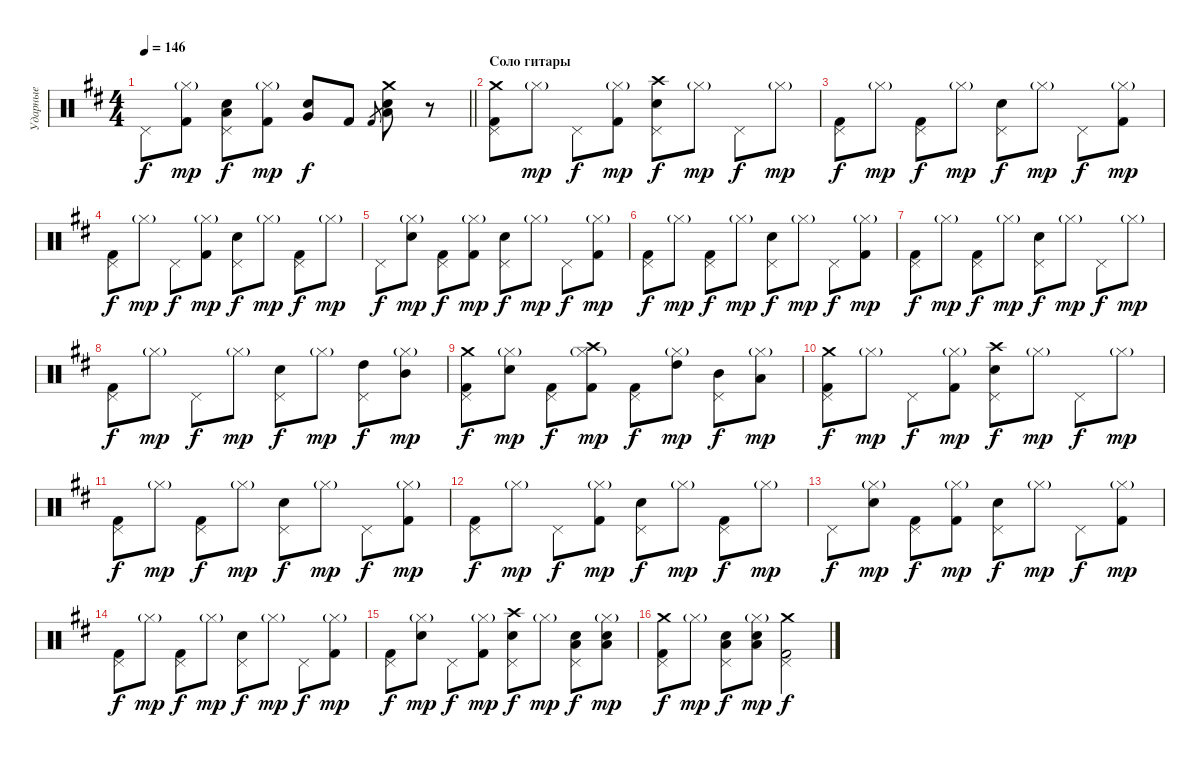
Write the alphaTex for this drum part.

\track ("Ударные" "Ударные") {instrument percussion}
\staff {score}
\articulation defaults
\ts (4 4)
\tempo 146
\clef neutral
\barLineRight lightlight
\ks bminor "Pedal Hi-Hat (hit)".8{dy f}
("Kick (hit) 2" "Hi-Hat (closed)"{g}).8{dy mp} ("Low Floor Tom (hit)" "Electric Snare (hit)" "Pedal Hi-Hat (hit)").8{dy f} ("Kick (hit) 2" "Hi-Hat (closed)"{g}).8{dy mp} ("Very Low Tom (hit)" "Electric Snare (hit)").8{dy f} "Kick (hit) 2".8 "Kick (hit) 2".8{gr} ("Low Tom (hit)" "Electric Snare (hit)" "Crash medium (hit)").8 r.8 |
\section ("" "Соло гитары")
("Crash medium (hit)" "Kick (hit) 2" "Pedal Hi-Hat (hit)").8 "Hi-Hat (closed)"{g}.8{dy mp} "Pedal Hi-Hat (hit)".8{dy f} ("Kick (hit) 2" "Hi-Hat (closed)"{g}).8{dy mp} ("Crash high (hit)" "Electric Snare (hit)" "Pedal Hi-Hat (hit)").8{dy f} "Hi-Hat (closed)"{g}.8{dy mp} "Pedal Hi-Hat (hit)".8{dy f} "Hi-Hat (closed)"{g}.8{dy mp} |
("Kick (hit) 2" "Pedal Hi-Hat (hit)").8{dy f} "Hi-Hat (closed)"{g}.8{dy mp} ("Kick (hit) 2" "Pedal Hi-Hat (hit)").8{dy f} "Hi-Hat (closed)"{g}.8{dy mp} ("Electric Snare (hit)" "Pedal Hi-Hat (hit)").8{dy f} "Hi-Hat (closed)"{g}.8{dy mp} "Pedal Hi-Hat (hit)".8{dy f} ("Kick (hit) 2" "Hi-Hat (closed)"{g}).8{dy mp} |
("Kick (hit) 2" "Pedal Hi-Hat (hit)").8{dy f} "Hi-Hat (closed)"{g}.8{dy mp} "Pedal Hi-Hat (hit)".8{dy f} ("Kick (hit) 2" "Hi-Hat (closed)"{g}).8{dy mp} ("Electric Snare (hit)" "Pedal Hi-Hat (hit)").8{dy f} "Hi-Hat (closed)"{g}.8{dy mp} ("Kick (hit) 2" "Pedal Hi-Hat (hit)").8{dy f} "Hi-Hat (closed)"{g}.8{dy mp} |
"Pedal Hi-Hat (hit)".8{dy f} ("Electric Snare (hit)" "Hi-Hat (closed)"{g}).8{dy mp} ("Kick (hit) 2" "Pedal Hi-Hat (hit)").8{dy f} ("Kick (hit) 2" "Hi-Hat (closed)"{g}).8{dy mp} ("Electric Snare (hit)" "Pedal Hi-Hat (hit)").8{dy f} "Hi-Hat (closed)"{g}.8{dy mp} "Pedal Hi-Hat (hit)".8{dy f} ("Kick (hit) 2" "Hi-Hat (closed)"{g}).8{dy mp} |
("Kick (hit) 2" "Pedal Hi-Hat (hit)").8{dy f} "Hi-Hat (closed)"{g}.8{dy mp} ("Kick (hit) 2" "Pedal Hi-Hat (hit)").8{dy f} "Hi-Hat (closed)"{g}.8{dy mp} ("Electric Snare (hit)" "Pedal Hi-Hat (hit)").8{dy f} "Hi-Hat (closed)"{g}.8{dy mp} "Pedal Hi-Hat (hit)".8{dy f} ("Kick (hit) 2" "Hi-Hat (closed)"{g}).8{dy mp} |
("Kick (hit) 2" "Pedal Hi-Hat (hit)").8{dy f} "Hi-Hat (closed)"{g}.8{dy mp} ("Kick (hit) 2" "Pedal Hi-Hat (hit)").8{dy f} "Hi-Hat (closed)"{g}.8{dy mp} ("Electric Snare (hit)" "Pedal Hi-Hat (hit)").8{dy f} "Hi-Hat (closed)"{g}.8{dy mp} "Pedal Hi-Hat (hit)".8{dy f} "Hi-Hat (closed)"{g}.8{dy mp} |
("Kick (hit) 2" "Pedal Hi-Hat (hit)").8{dy f} "Hi-Hat (closed)"{g}.8{dy mp} "Pedal Hi-Hat (hit)".8{dy f} "Hi-Hat (closed)"{g}.8{dy mp} ("Electric Snare (hit)" "Pedal Hi-Hat (hit)").8{dy f} "Hi-Hat (closed)"{g}.8{dy mp} ("High Tom (hit)" "Pedal Hi-Hat (hit)").8{dy f} ("Mid Tom (hit)" "Hi-Hat (closed)"{g}).8{dy mp} |
("Crash medium (hit)" "Kick (hit) 2" "Pedal Hi-Hat (hit)").8{dy f} ("Electric Snare (hit)" "Hi-Hat (closed)"{g}).8{dy mp} ("Kick (hit) 2" "Pedal Hi-Hat (hit)").8{dy f} ("Crash high (hit)" "Kick (hit) 2" "Hi-Hat (closed)"{g}).8{dy mp} ("Kick (hit) 2" "Pedal Hi-Hat (hit)").8{dy f} ("High Tom (hit)" "Hi-Hat (closed)"{g}).8{dy mp} ("Mid Tom (hit)" "Pedal Hi-Hat (hit)").8{dy f} ("Low Tom (hit)" "Hi-Hat (closed)"{g}).8{dy mp} |
("Crash medium (hit)" "Kick (hit) 2" "Pedal Hi-Hat (hit)").8{dy f} "Hi-Hat (closed)"{g}.8{dy mp} "Pedal Hi-Hat (hit)".8{dy f} ("Kick (hit) 2" "Hi-Hat (closed)"{g}).8{dy mp} ("Crash high (hit)" "Electric Snare (hit)" "Pedal Hi-Hat (hit)").8{dy f} "Hi-Hat (closed)"{g}.8{dy mp} "Pedal Hi-Hat (hit)".8{dy f} "Hi-Hat (closed)"{g}.8{dy mp} |
("Kick (hit) 2" "Pedal Hi-Hat (hit)").8{dy f} "Hi-Hat (closed)"{g}.8{dy mp} ("Kick (hit) 2" "Pedal Hi-Hat (hit)").8{dy f} "Hi-Hat (closed)"{g}.8{dy mp} ("Electric Snare (hit)" "Pedal Hi-Hat (hit)").8{dy f} "Hi-Hat (closed)"{g}.8{dy mp} "Pedal Hi-Hat (hit)".8{dy f} ("Kick (hit) 2" "Hi-Hat (closed)"{g}).8{dy mp} |
("Kick (hit) 2" "Pedal Hi-Hat (hit)").8{dy f} "Hi-Hat (closed)"{g}.8{dy mp} "Pedal Hi-Hat (hit)".8{dy f} ("Kick (hit) 2" "Hi-Hat (closed)"{g}).8{dy mp} ("Electric Snare (hit)" "Pedal Hi-Hat (hit)").8{dy f} "Hi-Hat (closed)"{g}.8{dy mp} ("Kick (hit) 2" "Pedal Hi-Hat (hit)").8{dy f} "Hi-Hat (closed)"{g}.8{dy mp} |
"Pedal Hi-Hat (hit)".8{dy f} ("Electric Snare (hit)" "Hi-Hat (closed)"{g}).8{dy mp} ("Kick (hit) 2" "Pedal Hi-Hat (hit)").8{dy f} ("Kick (hit) 2" "Hi-Hat (closed)"{g}).8{dy mp} ("Electric Snare (hit)" "Pedal Hi-Hat (hit)").8{dy f} "Hi-Hat (closed)"{g}.8{dy mp} "Pedal Hi-Hat (hit)".8{dy f} ("Kick (hit) 2" "Hi-Hat (closed)"{g}).8{dy mp} |
("Kick (hit) 2" "Pedal Hi-Hat (hit)").8{dy f} "Hi-Hat (closed)"{g}.8{dy mp} ("Kick (hit) 2" "Pedal Hi-Hat (hit)").8{dy f} "Hi-Hat (closed)"{g}.8{dy mp} ("Electric Snare (hit)" "Pedal Hi-Hat (hit)").8{dy f} "Hi-Hat (closed)"{g}.8{dy mp} "Pedal Hi-Hat (hit)".8{dy f} ("Kick (hit) 2" "Hi-Hat (closed)"{g}).8{dy mp} |
("Kick (hit) 2" "Pedal Hi-Hat (hit)").8{dy f} ("Electric Snare (hit)" "Hi-Hat (closed)"{g}).8{dy mp} "Pedal Hi-Hat (hit)".8{dy f} ("Kick (hit) 2" "Hi-Hat (closed)"{g}).8{dy mp} ("Crash high (hit)" "Electric Snare (hit)" "Pedal Hi-Hat (hit)").8{dy f} "Hi-Hat (closed)"{g}.8{dy mp} ("Low Floor Tom (hit)" "Electric Snare (hit)" "Pedal Hi-Hat (hit)").8{dy f} ("Low Floor Tom (hit)" "Electric Snare (hit)" "Hi-Hat (closed)"{g}).8{dy mp} |
("Crash medium (hit)" "Kick (hit) 2" "Pedal Hi-Hat (hit)").8{dy f} "Hi-Hat (closed)"{g}.8{dy mp} ("Low Floor Tom (hit)" "Electric Snare (hit)" "Pedal Hi-Hat (hit)").8{dy f} ("Low Floor Tom (hit)" "Electric Snare (hit)" "Hi-Hat (closed)"{g}).8{dy mp} ("Crash medium (hit)" "Kick (hit) 2" "Pedal Hi-Hat (hit)").2{dy f}
